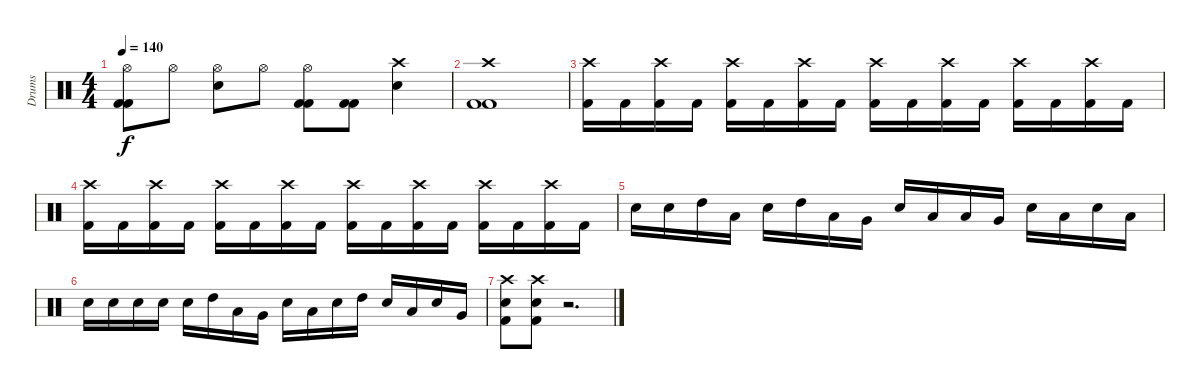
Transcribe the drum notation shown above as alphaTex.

\track ("Drums" "Drums") {instrument percussion}
\staff {score}
\articulation defaults
\ts (4 4)
\tempo 140
\clef neutral
\ks c
("Hi-Hat (open)" "Kick (hit) 2" "Kick (hit) 2").8{dy f} "Hi-Hat (open)".8 ("Electric Snare (hit)" "Hi-Hat (open)").8 "Hi-Hat (open)".8 ("Hi-Hat (open)" "Kick (hit) 2" "Kick (hit) 2").8 ("Kick (hit) 2" "Kick (hit) 2").8 ("Electric Snare (hit)" "Crash high (hit)").4 |
("Crash high (hit)" "Kick (hit) 2" "Kick (hit) 2").1 |
("Crash high (hit)" "Kick (hit) 2").16 "Kick (hit) 2".16 ("Kick (hit) 2" "Crash high (hit)").16 "Kick (hit) 2".16 ("Crash high (hit)" "Kick (hit) 2").16 "Kick (hit) 2".16 ("Kick (hit) 2" "Crash high (hit)").16 "Kick (hit) 2".16 ("Crash high (hit)" "Kick (hit) 2").16 "Kick (hit) 2".16 ("Kick (hit) 2" "Crash high (hit)").16 "Kick (hit) 2".16 ("Crash high (hit)" "Kick (hit) 2").16 "Kick (hit) 2".16 ("Kick (hit) 2" "Crash high (hit)").16 "Kick (hit) 2".16 |
("Crash high (hit)" "Kick (hit) 2").16 "Kick (hit) 2".16 ("Kick (hit) 2" "Crash high (hit)").16 "Kick (hit) 2".16 ("Crash high (hit)" "Kick (hit) 2").16 "Kick (hit) 2".16 ("Kick (hit) 2" "Crash high (hit)").16 "Kick (hit) 2".16 ("Crash high (hit)" "Kick (hit) 2").16 "Kick (hit) 2".16 ("Kick (hit) 2" "Crash high (hit)").16 "Kick (hit) 2".16 ("Crash high (hit)" "Kick (hit) 2").16 "Kick (hit) 2".16 ("Kick (hit) 2" "Crash high (hit)").16 "Kick (hit) 2".16 |
"Electric Snare (hit)".16 "Electric Snare (hit)".16 "High Tom (hit)".16 "Low Tom (hit)".16 "Electric Snare (hit)".16 "High Tom (hit)".16 "Low Tom (hit)".16 "Very Low Tom (hit)".16 "Electric Snare (hit)".16 "Low Tom (hit)".16 "Low Tom (hit)".16 "Very Low Tom (hit)".16 "Electric Snare (hit)".16 "Low Tom (hit)".16 "Electric Snare (hit)".16 "Low Floor Tom (hit)".16 |
"Electric Snare (hit)".16 "Electric Snare (hit)".16 "Electric Snare (hit)".16 "Electric Snare (hit)".16 "Electric Snare (hit)".16 "High Tom (hit)".16 "Low Tom (hit)".16 "Very Low Tom (hit)".16 "Electric Snare (hit)".16 "Low Tom (hit)".16 "Electric Snare (hit)".16 "High Tom (hit)".16 "Electric Snare (hit)".16 "Low Tom (hit)".16 "Electric Snare (hit)".16 "Very Low Tom (hit)".16 |
("Crash high (hit)" "Kick (hit) 2" "Electric Snare (hit)").8 ("Electric Snare (hit)" "Kick (hit) 2" "Crash high (hit)").8 r.2{d}
